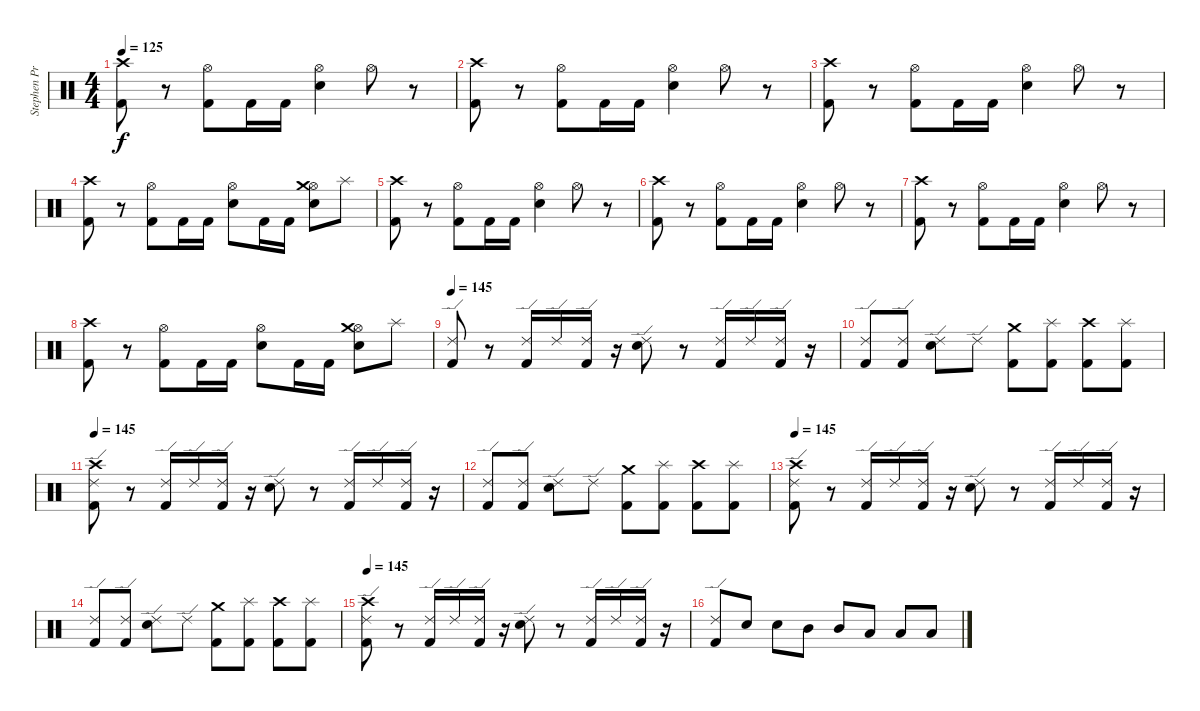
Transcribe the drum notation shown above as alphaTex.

\track ("Stephen Priestly" "Stephen Pr") {instrument percussion}
\staff {score}
\articulation defaults
\ts (4 4)
\tempo 125
\clef neutral
\ks c
("Crash high (hit)" "Kick (hit) 2").8{dy f} r.8 ("Hi-Hat (open)" "Kick (hit) 2").8 "Kick (hit) 2".16 "Kick (hit) 2".16 ("Hi-Hat (open)" "Snare (hit) 2").4 "Hi-Hat (open)".8 r.8 |
("Crash high (hit)" "Kick (hit) 2").8 r.8 ("Hi-Hat (open)" "Kick (hit) 2").8 "Kick (hit) 2".16 "Kick (hit) 2".16 ("Hi-Hat (open)" "Snare (hit) 2").4 "Hi-Hat (open)".8 r.8 |
("Crash high (hit)" "Kick (hit) 2").8 r.8 ("Hi-Hat (open)" "Kick (hit) 2").8 "Kick (hit) 2".16 "Kick (hit) 2".16 ("Hi-Hat (open)" "Snare (hit) 2").4 "Hi-Hat (open)".8 r.8 |
("Crash high (hit)" "Kick (hit) 2").8 r.8 ("Hi-Hat (open)" "Kick (hit) 2").8 "Kick (hit) 2".16 "Kick (hit) 2".16 ("Hi-Hat (open)" "Snare (hit) 2").8 "Kick (hit) 2".16 "Kick (hit) 2".16 ("Hi-Hat (open)" "Crash medium (hit)" "Snare (hit) 2").8 "Splash (hit)".8 |
("Crash high (hit)" "Kick (hit) 2").8 r.8 ("Hi-Hat (open)" "Kick (hit) 2").8 "Kick (hit) 2".16 "Kick (hit) 2".16 ("Hi-Hat (open)" "Snare (hit) 2").4 "Hi-Hat (open)".8 r.8 |
("Crash high (hit)" "Kick (hit) 2").8 r.8 ("Hi-Hat (open)" "Kick (hit) 2").8 "Kick (hit) 2".16 "Kick (hit) 2".16 ("Hi-Hat (open)" "Snare (hit) 2").4 "Hi-Hat (open)".8 r.8 |
("Crash high (hit)" "Kick (hit) 2").8 r.8 ("Hi-Hat (open)" "Kick (hit) 2").8 "Kick (hit) 2".16 "Kick (hit) 2".16 ("Hi-Hat (open)" "Snare (hit) 2").4 "Hi-Hat (open)".8 r.8 |
("Crash high (hit)" "Kick (hit) 2").8 r.8 ("Hi-Hat (open)" "Kick (hit) 2").8 "Kick (hit) 2".16 "Kick (hit) 2".16 ("Hi-Hat (open)" "Snare (hit) 2").8 "Kick (hit) 2".16 "Kick (hit) 2".16 ("Hi-Hat (open)" "Crash medium (hit)" "Snare (hit) 2").8 "Splash (hit)".8 |
\tempo 145
("Ride (edge) 2" "Kick (hit) 2").8 r.8 ("Ride (edge) 2" "Kick (hit) 2").16 "Ride (edge) 2".16 ("Ride (edge) 2" "Kick (hit) 2").16 r.16 ("Ride (edge) 2" "Snare (hit) 2").8 r.8 ("Ride (edge) 2" "Kick (hit) 2").16 "Ride (edge) 2".16 ("Ride (edge) 2" "Kick (hit) 2").16 r.16 |
("Ride (edge) 2" "Kick (hit) 2").8 ("Ride (edge) 2" "Kick (hit) 2").8 ("Ride (edge) 2" "Snare (hit) 2").8 "Ride (edge) 2".8 ("Crash medium (hit)" "Kick (hit) 2").8 ("Splash (hit)" "Kick (hit) 2").8 ("Crash high (hit)" "Kick (hit) 2").8 ("Splash (hit)" "Kick (hit) 2").8 |
\tempo 145
("Ride (edge) 2" "Crash high (hit)" "Kick (hit) 2").8 r.8 ("Ride (edge) 2" "Kick (hit) 2").16 "Ride (edge) 2".16 ("Ride (edge) 2" "Kick (hit) 2").16 r.16 ("Ride (edge) 2" "Snare (hit) 2").8 r.8 ("Ride (edge) 2" "Kick (hit) 2").16 "Ride (edge) 2".16 ("Ride (edge) 2" "Kick (hit) 2").16 r.16 |
("Ride (edge) 2" "Kick (hit) 2").8 ("Ride (edge) 2" "Kick (hit) 2").8 ("Ride (edge) 2" "Snare (hit) 2").8 "Ride (edge) 2".8 ("Crash medium (hit)" "Kick (hit) 2").8 ("Splash (hit)" "Kick (hit) 2").8 ("Crash high (hit)" "Kick (hit) 2").8 ("Splash (hit)" "Kick (hit) 2").8 |
\tempo 145
("Ride (edge) 2" "Crash high (hit)" "Kick (hit) 2").8 r.8 ("Ride (edge) 2" "Kick (hit) 2").16 "Ride (edge) 2".16 ("Ride (edge) 2" "Kick (hit) 2").16 r.16 ("Ride (edge) 2" "Snare (hit) 2").8 r.8 ("Ride (edge) 2" "Kick (hit) 2").16 "Ride (edge) 2".16 ("Ride (edge) 2" "Kick (hit) 2").16 r.16 |
("Ride (edge) 2" "Kick (hit) 2").8 ("Ride (edge) 2" "Kick (hit) 2").8 ("Ride (edge) 2" "Snare (hit) 2").8 "Ride (edge) 2".8 ("Crash medium (hit)" "Kick (hit) 2").8 ("Splash (hit)" "Kick (hit) 2").8 ("Crash high (hit)" "Kick (hit) 2").8 ("Splash (hit)" "Kick (hit) 2").8 |
\tempo 145
("Ride (edge) 2" "Crash high (hit)" "Kick (hit) 2").8 r.8 ("Ride (edge) 2" "Kick (hit) 2").16 "Ride (edge) 2".16 ("Ride (edge) 2" "Kick (hit) 2").16 r.16 ("Ride (edge) 2" "Snare (hit) 2").8 r.8 ("Ride (edge) 2" "Kick (hit) 2").16 "Ride (edge) 2".16 ("Ride (edge) 2" "Kick (hit) 2").16 r.16 |
("Ride (edge) 2" "Kick (hit) 2").8 "Snare (hit) 2".8 "Snare (hit) 2".8 "Mid Tom (hit)".8 "Mid Tom (hit)".8 "Low Tom (hit)".8 "Low Tom (hit)".8 "Low Tom (hit)".8
